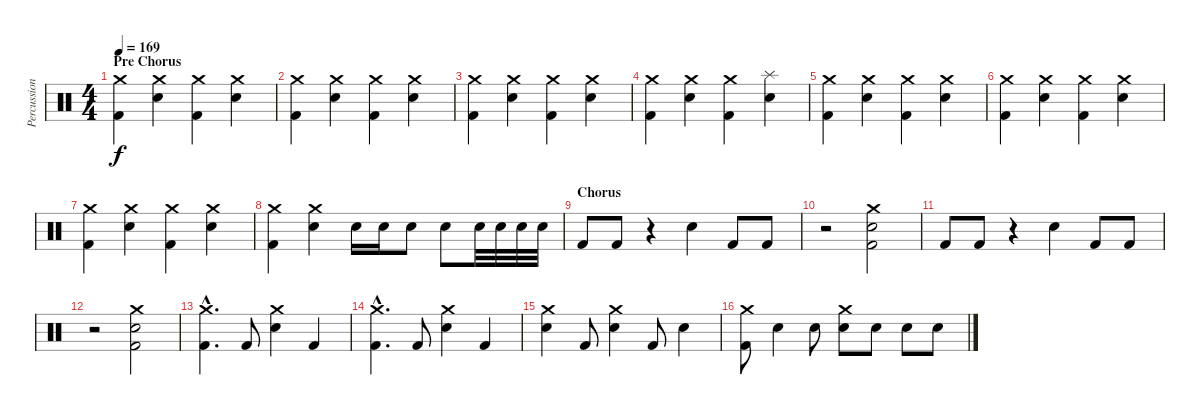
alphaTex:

\track ("Percussion" "Percussion") {instrument percussion}
\staff {score}
\articulation defaults
\ts (4 4)
\section ("" "Pre Chorus")
\tempo 169
\clef neutral
\ks c
("Crash medium (hit)" "Kick (hit) 2").4{dy f} ("Snare (hit) 2" "Crash medium (hit)").4 ("Crash medium (hit)" "Kick (hit) 2").4 ("Snare (hit) 2" "Crash medium (hit)").4 |
("Crash medium (hit)" "Kick (hit) 2").4 ("Snare (hit) 2" "Crash medium (hit)").4 ("Crash medium (hit)" "Kick (hit) 2").4 ("Snare (hit) 2" "Crash medium (hit)").4 |
("Crash medium (hit)" "Kick (hit) 2").4 ("Snare (hit) 2" "Crash medium (hit)").4 ("Crash medium (hit)" "Kick (hit) 2").4 ("Snare (hit) 2" "Crash medium (hit)").4 |
("Crash medium (hit)" "Kick (hit) 2").4 ("Snare (hit) 2" "Crash medium (hit)").4 ("Crash medium (hit)" "Kick (hit) 2").4 ("Snare (hit) 2" "Splash (hit)").4 |
("Crash medium (hit)" "Kick (hit) 2").4 ("Snare (hit) 2" "Crash medium (hit)").4 ("Crash medium (hit)" "Kick (hit) 2").4 ("Snare (hit) 2" "Crash medium (hit)").4 |
("Crash medium (hit)" "Kick (hit) 2").4 ("Snare (hit) 2" "Crash medium (hit)").4 ("Crash medium (hit)" "Kick (hit) 2").4 ("Snare (hit) 2" "Crash medium (hit)").4 |
("Crash medium (hit)" "Kick (hit) 2").4 ("Snare (hit) 2" "Crash medium (hit)").4 ("Crash medium (hit)" "Kick (hit) 2").4 ("Snare (hit) 2" "Crash medium (hit)").4 |
("Crash medium (hit)" "Kick (hit) 2").4 ("Snare (hit) 2" "Crash medium (hit)").4 "Snare (hit) 2".16 "Snare (hit) 2".16 "Snare (hit) 2".8 "Snare (hit) 2".8 "Snare (hit) 2".32 "Snare (hit) 2".32 "Snare (hit) 2".32 "Snare (hit) 2".32 |
\section ("" "Chorus")
"Kick (hit) 2".8 "Kick (hit) 2".8 r.4 "Snare (hit) 2".4 "Kick (hit) 2".8 "Kick (hit) 2".8 |
r.2 ("Snare (hit) 2" "Kick (hit) 2" "Crash medium (hit)").2 |
"Kick (hit) 2".8 "Kick (hit) 2".8 r.4 "Snare (hit) 2".4 "Kick (hit) 2".8 "Kick (hit) 2".8 |
r.2 ("Snare (hit) 2" "Kick (hit) 2" "Crash medium (hit)").2 |
("Crash medium (hit)"{hac} "Kick (hit) 2"{hac}).4{d} "Kick (hit) 2".8 ("Crash medium (hit)" "Snare (hit) 2").4 "Kick (hit) 2".4 |
("Crash medium (hit)"{hac} "Kick (hit) 2"{hac}).4{d} "Kick (hit) 2".8 ("Crash medium (hit)" "Snare (hit) 2").4 "Kick (hit) 2".4 |
("Crash medium (hit)" "Snare (hit) 2").4 "Kick (hit) 2".8 ("Crash medium (hit)" "Snare (hit) 2").4 "Kick (hit) 2".8 "Snare (hit) 2".4 |
("Crash medium (hit)" "Kick (hit) 2").8 "Snare (hit) 2".4 "Snare (hit) 2".8 ("Crash medium (hit)" "Snare (hit) 2").8 "Snare (hit) 2".8 "Snare (hit) 2".8 "Snare (hit) 2".8
